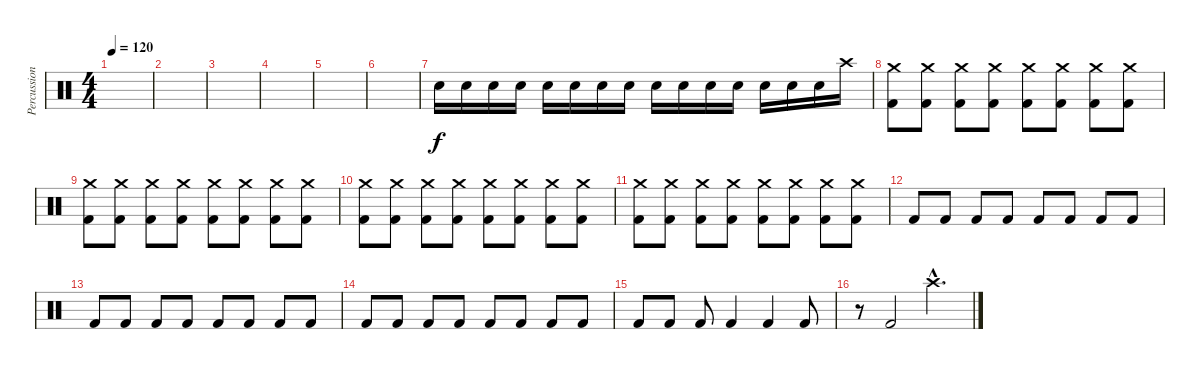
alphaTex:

\track ("Percussioni" "Percussion") {instrument percussion}
\staff {score}
\articulation defaults
\ts (4 4)
\tempo 120
\clef neutral
\ks c
|
|
|
|
|
|
"Electric Snare (hit)".16 "Electric Snare (hit)".16 "Electric Snare (hit)".16 "Electric Snare (hit)".16 "Electric Snare (hit)".16 "Electric Snare (hit)".16 "Electric Snare (hit)".16 "Electric Snare (hit)".16 "Electric Snare (hit)".16 "Electric Snare (hit)".16 "Electric Snare (hit)".16 "Electric Snare (hit)".16 "Electric Snare (hit)".16 "Electric Snare (hit)".16 "Electric Snare (hit)".16 "Crash high (hit)".16 |
("Kick (hit) 2" "Crash medium (hit)").8 ("Kick (hit) 2" "Crash medium (hit)").8 ("Kick (hit) 2" "Crash medium (hit)").8 ("Kick (hit) 2" "Crash medium (hit)").8 ("Kick (hit) 2" "Crash medium (hit)").8 ("Kick (hit) 2" "Crash medium (hit)").8 ("Kick (hit) 2" "Crash medium (hit)").8 ("Kick (hit) 2" "Crash medium (hit)").8 |
("Kick (hit) 2" "Crash medium (hit)").8 ("Kick (hit) 2" "Crash medium (hit)").8 ("Kick (hit) 2" "Crash medium (hit)").8 ("Kick (hit) 2" "Crash medium (hit)").8 ("Kick (hit) 2" "Crash medium (hit)").8 ("Kick (hit) 2" "Crash medium (hit)").8 ("Kick (hit) 2" "Crash medium (hit)").8 ("Kick (hit) 2" "Crash medium (hit)").8 |
("Kick (hit) 2" "Crash medium (hit)").8 ("Kick (hit) 2" "Crash medium (hit)").8 ("Kick (hit) 2" "Crash medium (hit)").8 ("Kick (hit) 2" "Crash medium (hit)").8 ("Kick (hit) 2" "Crash medium (hit)").8 ("Kick (hit) 2" "Crash medium (hit)").8 ("Kick (hit) 2" "Crash medium (hit)").8 ("Kick (hit) 2" "Crash medium (hit)").8 |
("Kick (hit) 2" "Crash medium (hit)").8 ("Kick (hit) 2" "Crash medium (hit)").8 ("Kick (hit) 2" "Crash medium (hit)").8 ("Kick (hit) 2" "Crash medium (hit)").8 ("Kick (hit) 2" "Crash medium (hit)").8 ("Kick (hit) 2" "Crash medium (hit)").8 ("Kick (hit) 2" "Crash medium (hit)").8 ("Kick (hit) 2" "Crash medium (hit)").8 |
"Kick (hit) 2".8 "Kick (hit) 2".8 "Kick (hit) 2".8 "Kick (hit) 2".8 "Kick (hit) 2".8 "Kick (hit) 2".8 "Kick (hit) 2".8 "Kick (hit) 2".8 |
"Kick (hit) 2".8 "Kick (hit) 2".8 "Kick (hit) 2".8 "Kick (hit) 2".8 "Kick (hit) 2".8 "Kick (hit) 2".8 "Kick (hit) 2".8 "Kick (hit) 2".8 |
"Kick (hit) 2".8 "Kick (hit) 2".8 "Kick (hit) 2".8 "Kick (hit) 2".8 "Kick (hit) 2".8 "Kick (hit) 2".8 "Kick (hit) 2".8 "Kick (hit) 2".8 |
"Kick (hit) 2".8 "Kick (hit) 2".8 "Kick (hit) 2".8 "Kick (hit) 2".4 "Kick (hit) 2".4 "Kick (hit) 2".8 |
r.8 "Kick (hit) 2".2 "Crash high (hit)"{hac}.4{d}
